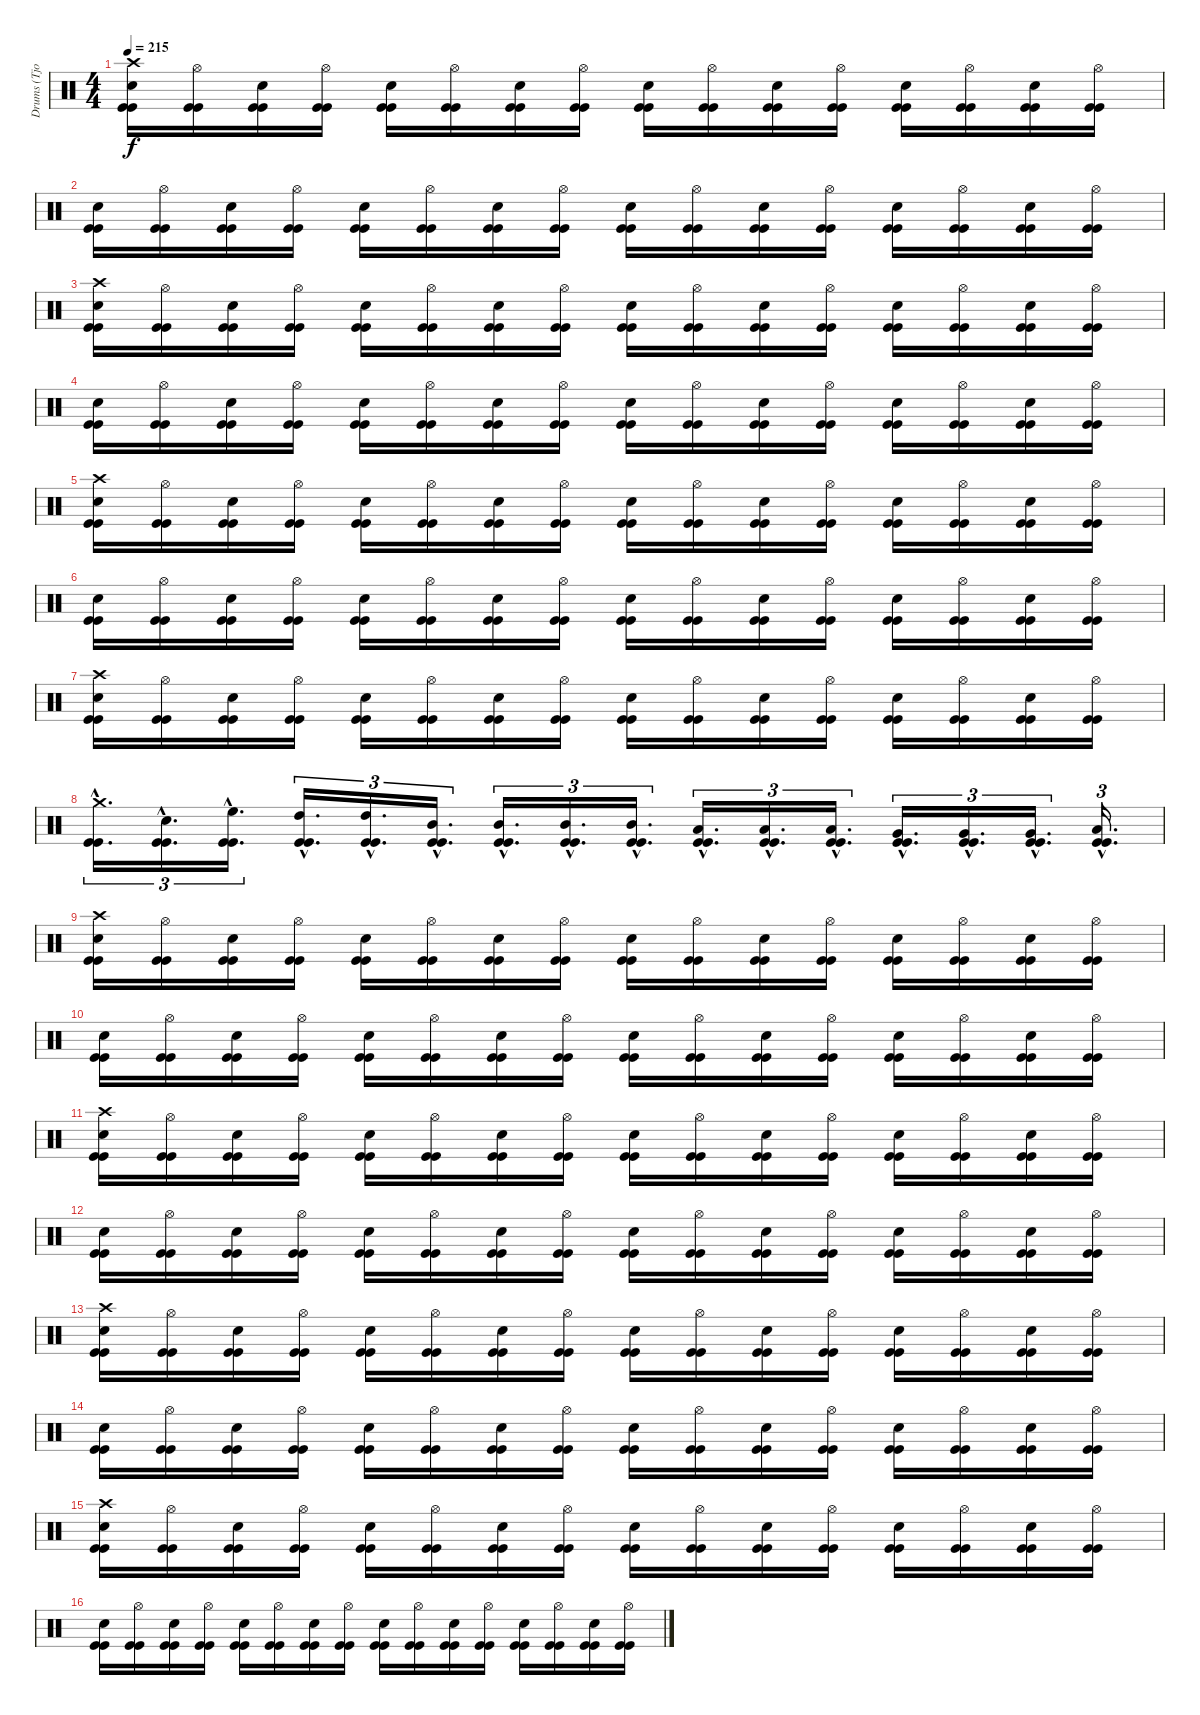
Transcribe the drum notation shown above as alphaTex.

\track ("Drums (Tjodalv)" "Drums (Tjo") {instrument percussion}
\staff {score}
\articulation defaults
\ts (4 4)
\tempo 215
\clef neutral
\ks c
("Crash high (hit)" "Snare (hit) 2" "Kick (hit)" "Kick (hit)").16{dy f} ("Hi-Hat (open)" "Kick (hit)" "Kick (hit)").16 ("Snare (hit) 2" "Kick (hit)" "Kick (hit)").16 ("Hi-Hat (open)" "Kick (hit)" "Kick (hit)").16 ("Snare (hit) 2" "Kick (hit)" "Kick (hit)").16 ("Hi-Hat (open)" "Kick (hit)" "Kick (hit)").16 ("Snare (hit) 2" "Kick (hit)" "Kick (hit)").16 ("Hi-Hat (open)" "Kick (hit)" "Kick (hit)").16 ("Snare (hit) 2" "Kick (hit)" "Kick (hit)").16 ("Hi-Hat (open)" "Kick (hit)" "Kick (hit)").16 ("Snare (hit) 2" "Kick (hit)" "Kick (hit)").16 ("Hi-Hat (open)" "Kick (hit)" "Kick (hit)").16 ("Snare (hit) 2" "Kick (hit)" "Kick (hit)").16 ("Hi-Hat (open)" "Kick (hit)" "Kick (hit)").16 ("Snare (hit) 2" "Kick (hit)" "Kick (hit)").16 ("Hi-Hat (open)" "Kick (hit)" "Kick (hit)").16 |
("Snare (hit) 2" "Kick (hit)" "Kick (hit)").16 ("Hi-Hat (open)" "Kick (hit)" "Kick (hit)").16 ("Snare (hit) 2" "Kick (hit)" "Kick (hit)").16 ("Hi-Hat (open)" "Kick (hit)" "Kick (hit)").16 ("Snare (hit) 2" "Kick (hit)" "Kick (hit)").16 ("Hi-Hat (open)" "Kick (hit)" "Kick (hit)").16 ("Snare (hit) 2" "Kick (hit)" "Kick (hit)").16 ("Hi-Hat (open)" "Kick (hit)" "Kick (hit)").16 ("Snare (hit) 2" "Kick (hit)" "Kick (hit)").16 ("Hi-Hat (open)" "Kick (hit)" "Kick (hit)").16 ("Snare (hit) 2" "Kick (hit)" "Kick (hit)").16 ("Hi-Hat (open)" "Kick (hit)" "Kick (hit)").16 ("Snare (hit) 2" "Kick (hit)" "Kick (hit)").16 ("Hi-Hat (open)" "Kick (hit)" "Kick (hit)").16 ("Snare (hit) 2" "Kick (hit)" "Kick (hit)").16 ("Hi-Hat (open)" "Kick (hit)" "Kick (hit)").16 |
("Crash high (hit)" "Snare (hit) 2" "Kick (hit)" "Kick (hit)").16 ("Hi-Hat (open)" "Kick (hit)" "Kick (hit)").16 ("Snare (hit) 2" "Kick (hit)" "Kick (hit)").16 ("Hi-Hat (open)" "Kick (hit)" "Kick (hit)").16 ("Snare (hit) 2" "Kick (hit)" "Kick (hit)").16 ("Hi-Hat (open)" "Kick (hit)" "Kick (hit)").16 ("Snare (hit) 2" "Kick (hit)" "Kick (hit)").16 ("Hi-Hat (open)" "Kick (hit)" "Kick (hit)").16 ("Snare (hit) 2" "Kick (hit)" "Kick (hit)").16 ("Hi-Hat (open)" "Kick (hit)" "Kick (hit)").16 ("Snare (hit) 2" "Kick (hit)" "Kick (hit)").16 ("Hi-Hat (open)" "Kick (hit)" "Kick (hit)").16 ("Snare (hit) 2" "Kick (hit)" "Kick (hit)").16 ("Hi-Hat (open)" "Kick (hit)" "Kick (hit)").16 ("Snare (hit) 2" "Kick (hit)" "Kick (hit)").16 ("Hi-Hat (open)" "Kick (hit)" "Kick (hit)").16 |
("Snare (hit) 2" "Kick (hit)" "Kick (hit)").16 ("Hi-Hat (open)" "Kick (hit)" "Kick (hit)").16 ("Snare (hit) 2" "Kick (hit)" "Kick (hit)").16 ("Hi-Hat (open)" "Kick (hit)" "Kick (hit)").16 ("Snare (hit) 2" "Kick (hit)" "Kick (hit)").16 ("Hi-Hat (open)" "Kick (hit)" "Kick (hit)").16 ("Snare (hit) 2" "Kick (hit)" "Kick (hit)").16 ("Hi-Hat (open)" "Kick (hit)" "Kick (hit)").16 ("Snare (hit) 2" "Kick (hit)" "Kick (hit)").16 ("Hi-Hat (open)" "Kick (hit)" "Kick (hit)").16 ("Snare (hit) 2" "Kick (hit)" "Kick (hit)").16 ("Hi-Hat (open)" "Kick (hit)" "Kick (hit)").16 ("Snare (hit) 2" "Kick (hit)" "Kick (hit)").16 ("Hi-Hat (open)" "Kick (hit)" "Kick (hit)").16 ("Snare (hit) 2" "Kick (hit)" "Kick (hit)").16 ("Hi-Hat (open)" "Kick (hit)" "Kick (hit)").16 |
("Crash high (hit)" "Snare (hit) 2" "Kick (hit)" "Kick (hit)").16 ("Hi-Hat (open)" "Kick (hit)" "Kick (hit)").16 ("Snare (hit) 2" "Kick (hit)" "Kick (hit)").16 ("Hi-Hat (open)" "Kick (hit)" "Kick (hit)").16 ("Snare (hit) 2" "Kick (hit)" "Kick (hit)").16 ("Hi-Hat (open)" "Kick (hit)" "Kick (hit)").16 ("Snare (hit) 2" "Kick (hit)" "Kick (hit)").16 ("Hi-Hat (open)" "Kick (hit)" "Kick (hit)").16 ("Snare (hit) 2" "Kick (hit)" "Kick (hit)").16 ("Hi-Hat (open)" "Kick (hit)" "Kick (hit)").16 ("Snare (hit) 2" "Kick (hit)" "Kick (hit)").16 ("Hi-Hat (open)" "Kick (hit)" "Kick (hit)").16 ("Snare (hit) 2" "Kick (hit)" "Kick (hit)").16 ("Hi-Hat (open)" "Kick (hit)" "Kick (hit)").16 ("Snare (hit) 2" "Kick (hit)" "Kick (hit)").16 ("Hi-Hat (open)" "Kick (hit)" "Kick (hit)").16 |
("Snare (hit) 2" "Kick (hit)" "Kick (hit)").16 ("Hi-Hat (open)" "Kick (hit)" "Kick (hit)").16 ("Snare (hit) 2" "Kick (hit)" "Kick (hit)").16 ("Hi-Hat (open)" "Kick (hit)" "Kick (hit)").16 ("Snare (hit) 2" "Kick (hit)" "Kick (hit)").16 ("Hi-Hat (open)" "Kick (hit)" "Kick (hit)").16 ("Snare (hit) 2" "Kick (hit)" "Kick (hit)").16 ("Hi-Hat (open)" "Kick (hit)" "Kick (hit)").16 ("Snare (hit) 2" "Kick (hit)" "Kick (hit)").16 ("Hi-Hat (open)" "Kick (hit)" "Kick (hit)").16 ("Snare (hit) 2" "Kick (hit)" "Kick (hit)").16 ("Hi-Hat (open)" "Kick (hit)" "Kick (hit)").16 ("Snare (hit) 2" "Kick (hit)" "Kick (hit)").16 ("Hi-Hat (open)" "Kick (hit)" "Kick (hit)").16 ("Snare (hit) 2" "Kick (hit)" "Kick (hit)").16 ("Hi-Hat (open)" "Kick (hit)" "Kick (hit)").16 |
("Crash high (hit)" "Snare (hit) 2" "Kick (hit)" "Kick (hit)").16 ("Hi-Hat (open)" "Kick (hit)" "Kick (hit)").16 ("Snare (hit) 2" "Kick (hit)" "Kick (hit)").16 ("Hi-Hat (open)" "Kick (hit)" "Kick (hit)").16 ("Snare (hit) 2" "Kick (hit)" "Kick (hit)").16 ("Hi-Hat (open)" "Kick (hit)" "Kick (hit)").16 ("Snare (hit) 2" "Kick (hit)" "Kick (hit)").16 ("Hi-Hat (open)" "Kick (hit)" "Kick (hit)").16 ("Snare (hit) 2" "Kick (hit)" "Kick (hit)").16 ("Hi-Hat (open)" "Kick (hit)" "Kick (hit)").16 ("Snare (hit) 2" "Kick (hit)" "Kick (hit)").16 ("Hi-Hat (open)" "Kick (hit)" "Kick (hit)").16 ("Snare (hit) 2" "Kick (hit)" "Kick (hit)").16 ("Hi-Hat (open)" "Kick (hit)" "Kick (hit)").16 ("Snare (hit) 2" "Kick (hit)" "Kick (hit)").16 ("Hi-Hat (open)" "Kick (hit)" "Kick (hit)").16 |
("Crash medium (hit)"{hac} "Kick (hit)"{hac} "Kick (hit)"{hac}).16{d tu (3 2)} ("Snare (hit) 2"{hac} "Kick (hit)"{hac} "Kick (hit)"{hac}).16{d tu (3 2)} ("High Floor Tom (hit)"{hac} "Kick (hit)"{hac} "Kick (hit)"{hac}).16{d tu (3 2)} ("High Tom (hit)"{hac} "Kick (hit)"{hac} "Kick (hit)"{hac}).16{d tu (3 2)} ("High Tom (hit)"{hac} "Kick (hit)"{hac} "Kick (hit)"{hac}).16{d tu (3 2)} ("Mid Tom (hit)"{hac} "Kick (hit)"{hac} "Kick (hit)"{hac}).16{d tu (3 2)} ("Mid Tom (hit)"{hac} "Kick (hit)"{hac} "Kick (hit)"{hac}).16{d tu (3 2)} ("Mid Tom (hit)"{hac} "Kick (hit)"{hac} "Kick (hit)"{hac}).16{d tu (3 2)} ("Mid Tom (hit)"{hac} "Kick (hit)"{hac} "Kick (hit)"{hac}).16{d tu (3 2)} ("Low Tom (hit)"{hac} "Kick (hit)"{hac} "Kick (hit)"{hac}).16{d tu (3 2)} ("Low Tom (hit)"{hac} "Kick (hit)"{hac} "Kick (hit)"{hac}).16{d tu (3 2)} ("Low Tom (hit)"{hac} "Kick (hit)"{hac} "Kick (hit)"{hac}).16{d tu (3 2)} ("Very Low Tom (hit)"{hac} "Kick (hit)"{hac} "Kick (hit)"{hac}).16{d tu (3 2)} ("Very Low Tom (hit)"{hac} "Kick (hit)"{hac} "Kick (hit)"{hac}).16{d tu (3 2)} ("Very Low Tom (hit)"{hac} "Kick (hit)"{hac} "Kick (hit)"{hac}).16{d tu (3 2)} ("Low Floor Tom (hit)"{hac} "Kick (hit)"{hac} "Kick (hit)"{hac}).16{d tu (3 2)} |
("Crash high (hit)" "Snare (hit) 2" "Kick (hit)" "Kick (hit)").16 ("Hi-Hat (open)" "Kick (hit)" "Kick (hit)").16 ("Snare (hit) 2" "Kick (hit)" "Kick (hit)").16 ("Hi-Hat (open)" "Kick (hit)" "Kick (hit)").16 ("Snare (hit) 2" "Kick (hit)" "Kick (hit)").16 ("Hi-Hat (open)" "Kick (hit)" "Kick (hit)").16 ("Snare (hit) 2" "Kick (hit)" "Kick (hit)").16 ("Hi-Hat (open)" "Kick (hit)" "Kick (hit)").16 ("Snare (hit) 2" "Kick (hit)" "Kick (hit)").16 ("Hi-Hat (open)" "Kick (hit)" "Kick (hit)").16 ("Snare (hit) 2" "Kick (hit)" "Kick (hit)").16 ("Hi-Hat (open)" "Kick (hit)" "Kick (hit)").16 ("Snare (hit) 2" "Kick (hit)" "Kick (hit)").16 ("Hi-Hat (open)" "Kick (hit)" "Kick (hit)").16 ("Snare (hit) 2" "Kick (hit)" "Kick (hit)").16 ("Hi-Hat (open)" "Kick (hit)" "Kick (hit)").16 |
("Snare (hit) 2" "Kick (hit)" "Kick (hit)").16 ("Hi-Hat (open)" "Kick (hit)" "Kick (hit)").16 ("Snare (hit) 2" "Kick (hit)" "Kick (hit)").16 ("Hi-Hat (open)" "Kick (hit)" "Kick (hit)").16 ("Snare (hit) 2" "Kick (hit)" "Kick (hit)").16 ("Hi-Hat (open)" "Kick (hit)" "Kick (hit)").16 ("Snare (hit) 2" "Kick (hit)" "Kick (hit)").16 ("Hi-Hat (open)" "Kick (hit)" "Kick (hit)").16 ("Snare (hit) 2" "Kick (hit)" "Kick (hit)").16 ("Hi-Hat (open)" "Kick (hit)" "Kick (hit)").16 ("Snare (hit) 2" "Kick (hit)" "Kick (hit)").16 ("Hi-Hat (open)" "Kick (hit)" "Kick (hit)").16 ("Snare (hit) 2" "Kick (hit)" "Kick (hit)").16 ("Hi-Hat (open)" "Kick (hit)" "Kick (hit)").16 ("Snare (hit) 2" "Kick (hit)" "Kick (hit)").16 ("Hi-Hat (open)" "Kick (hit)" "Kick (hit)").16 |
("Crash high (hit)" "Snare (hit) 2" "Kick (hit)" "Kick (hit)").16 ("Hi-Hat (open)" "Kick (hit)" "Kick (hit)").16 ("Snare (hit) 2" "Kick (hit)" "Kick (hit)").16 ("Hi-Hat (open)" "Kick (hit)" "Kick (hit)").16 ("Snare (hit) 2" "Kick (hit)" "Kick (hit)").16 ("Hi-Hat (open)" "Kick (hit)" "Kick (hit)").16 ("Snare (hit) 2" "Kick (hit)" "Kick (hit)").16 ("Hi-Hat (open)" "Kick (hit)" "Kick (hit)").16 ("Snare (hit) 2" "Kick (hit)" "Kick (hit)").16 ("Hi-Hat (open)" "Kick (hit)" "Kick (hit)").16 ("Snare (hit) 2" "Kick (hit)" "Kick (hit)").16 ("Hi-Hat (open)" "Kick (hit)" "Kick (hit)").16 ("Snare (hit) 2" "Kick (hit)" "Kick (hit)").16 ("Hi-Hat (open)" "Kick (hit)" "Kick (hit)").16 ("Snare (hit) 2" "Kick (hit)" "Kick (hit)").16 ("Hi-Hat (open)" "Kick (hit)" "Kick (hit)").16 |
("Snare (hit) 2" "Kick (hit)" "Kick (hit)").16 ("Hi-Hat (open)" "Kick (hit)" "Kick (hit)").16 ("Snare (hit) 2" "Kick (hit)" "Kick (hit)").16 ("Hi-Hat (open)" "Kick (hit)" "Kick (hit)").16 ("Snare (hit) 2" "Kick (hit)" "Kick (hit)").16 ("Hi-Hat (open)" "Kick (hit)" "Kick (hit)").16 ("Snare (hit) 2" "Kick (hit)" "Kick (hit)").16 ("Hi-Hat (open)" "Kick (hit)" "Kick (hit)").16 ("Snare (hit) 2" "Kick (hit)" "Kick (hit)").16 ("Hi-Hat (open)" "Kick (hit)" "Kick (hit)").16 ("Snare (hit) 2" "Kick (hit)" "Kick (hit)").16 ("Hi-Hat (open)" "Kick (hit)" "Kick (hit)").16 ("Snare (hit) 2" "Kick (hit)" "Kick (hit)").16 ("Hi-Hat (open)" "Kick (hit)" "Kick (hit)").16 ("Snare (hit) 2" "Kick (hit)" "Kick (hit)").16 ("Hi-Hat (open)" "Kick (hit)" "Kick (hit)").16 |
("Crash high (hit)" "Snare (hit) 2" "Kick (hit)" "Kick (hit)").16 ("Hi-Hat (open)" "Kick (hit)" "Kick (hit)").16 ("Snare (hit) 2" "Kick (hit)" "Kick (hit)").16 ("Hi-Hat (open)" "Kick (hit)" "Kick (hit)").16 ("Snare (hit) 2" "Kick (hit)" "Kick (hit)").16 ("Hi-Hat (open)" "Kick (hit)" "Kick (hit)").16 ("Snare (hit) 2" "Kick (hit)" "Kick (hit)").16 ("Hi-Hat (open)" "Kick (hit)" "Kick (hit)").16 ("Snare (hit) 2" "Kick (hit)" "Kick (hit)").16 ("Hi-Hat (open)" "Kick (hit)" "Kick (hit)").16 ("Snare (hit) 2" "Kick (hit)" "Kick (hit)").16 ("Hi-Hat (open)" "Kick (hit)" "Kick (hit)").16 ("Snare (hit) 2" "Kick (hit)" "Kick (hit)").16 ("Hi-Hat (open)" "Kick (hit)" "Kick (hit)").16 ("Snare (hit) 2" "Kick (hit)" "Kick (hit)").16 ("Hi-Hat (open)" "Kick (hit)" "Kick (hit)").16 |
("Snare (hit) 2" "Kick (hit)" "Kick (hit)").16 ("Hi-Hat (open)" "Kick (hit)" "Kick (hit)").16 ("Snare (hit) 2" "Kick (hit)" "Kick (hit)").16 ("Hi-Hat (open)" "Kick (hit)" "Kick (hit)").16 ("Snare (hit) 2" "Kick (hit)" "Kick (hit)").16 ("Hi-Hat (open)" "Kick (hit)" "Kick (hit)").16 ("Snare (hit) 2" "Kick (hit)" "Kick (hit)").16 ("Hi-Hat (open)" "Kick (hit)" "Kick (hit)").16 ("Snare (hit) 2" "Kick (hit)" "Kick (hit)").16 ("Hi-Hat (open)" "Kick (hit)" "Kick (hit)").16 ("Snare (hit) 2" "Kick (hit)" "Kick (hit)").16 ("Hi-Hat (open)" "Kick (hit)" "Kick (hit)").16 ("Snare (hit) 2" "Kick (hit)" "Kick (hit)").16 ("Hi-Hat (open)" "Kick (hit)" "Kick (hit)").16 ("Snare (hit) 2" "Kick (hit)" "Kick (hit)").16 ("Hi-Hat (open)" "Kick (hit)" "Kick (hit)").16 |
("Crash high (hit)" "Snare (hit) 2" "Kick (hit)" "Kick (hit)").16 ("Hi-Hat (open)" "Kick (hit)" "Kick (hit)").16 ("Snare (hit) 2" "Kick (hit)" "Kick (hit)").16 ("Hi-Hat (open)" "Kick (hit)" "Kick (hit)").16 ("Snare (hit) 2" "Kick (hit)" "Kick (hit)").16 ("Hi-Hat (open)" "Kick (hit)" "Kick (hit)").16 ("Snare (hit) 2" "Kick (hit)" "Kick (hit)").16 ("Hi-Hat (open)" "Kick (hit)" "Kick (hit)").16 ("Snare (hit) 2" "Kick (hit)" "Kick (hit)").16 ("Hi-Hat (open)" "Kick (hit)" "Kick (hit)").16 ("Snare (hit) 2" "Kick (hit)" "Kick (hit)").16 ("Hi-Hat (open)" "Kick (hit)" "Kick (hit)").16 ("Snare (hit) 2" "Kick (hit)" "Kick (hit)").16 ("Hi-Hat (open)" "Kick (hit)" "Kick (hit)").16 ("Snare (hit) 2" "Kick (hit)" "Kick (hit)").16 ("Hi-Hat (open)" "Kick (hit)" "Kick (hit)").16 |
("Snare (hit) 2" "Kick (hit)" "Kick (hit)").16 ("Hi-Hat (open)" "Kick (hit)" "Kick (hit)").16 ("Snare (hit) 2" "Kick (hit)" "Kick (hit)").16 ("Hi-Hat (open)" "Kick (hit)" "Kick (hit)").16 ("Snare (hit) 2" "Kick (hit)" "Kick (hit)").16 ("Hi-Hat (open)" "Kick (hit)" "Kick (hit)").16 ("Snare (hit) 2" "Kick (hit)" "Kick (hit)").16 ("Hi-Hat (open)" "Kick (hit)" "Kick (hit)").16 ("Snare (hit) 2" "Kick (hit)" "Kick (hit)").16 ("Hi-Hat (open)" "Kick (hit)" "Kick (hit)").16 ("Snare (hit) 2" "Kick (hit)" "Kick (hit)").16 ("Hi-Hat (open)" "Kick (hit)" "Kick (hit)").16 ("Snare (hit) 2" "Kick (hit)" "Kick (hit)").16 ("Hi-Hat (open)" "Kick (hit)" "Kick (hit)").16 ("Snare (hit) 2" "Kick (hit)" "Kick (hit)").16 ("Hi-Hat (open)" "Kick (hit)" "Kick (hit)").16
